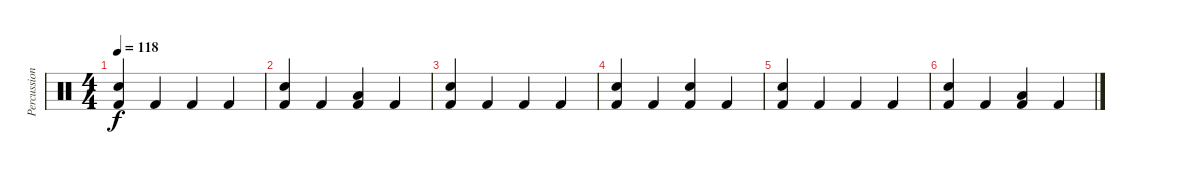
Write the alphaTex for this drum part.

\track ("Percussion" "Percussion") {instrument percussion}
\staff {score}
\articulation defaults
\ts (4 4)
\tempo 118
\clef neutral
\ks c
("Electric Snare (hit)" "Kick (hit) 2").4{dy f} "Kick (hit) 2".4 "Kick (hit) 2".4 "Kick (hit) 2".4 |
("Electric Snare (hit)" "Kick (hit) 2").4 "Kick (hit) 2".4 ("Low Floor Tom (hit)" "Kick (hit) 2").4 "Kick (hit) 2".4 |
("Electric Snare (hit)" "Kick (hit) 2").4 "Kick (hit) 2".4 "Kick (hit) 2".4 "Kick (hit) 2".4 |
("Electric Snare (hit)" "Kick (hit) 2").4 "Kick (hit) 2".4 ("Electric Snare (hit)" "Kick (hit) 2").4 "Kick (hit) 2".4 |
("Electric Snare (hit)" "Kick (hit) 2").4 "Kick (hit) 2".4 "Kick (hit) 2".4 "Kick (hit) 2".4 |
("Electric Snare (hit)" "Kick (hit) 2").4 "Kick (hit) 2".4 ("Low Floor Tom (hit)" "Kick (hit) 2").4 "Kick (hit) 2".4
